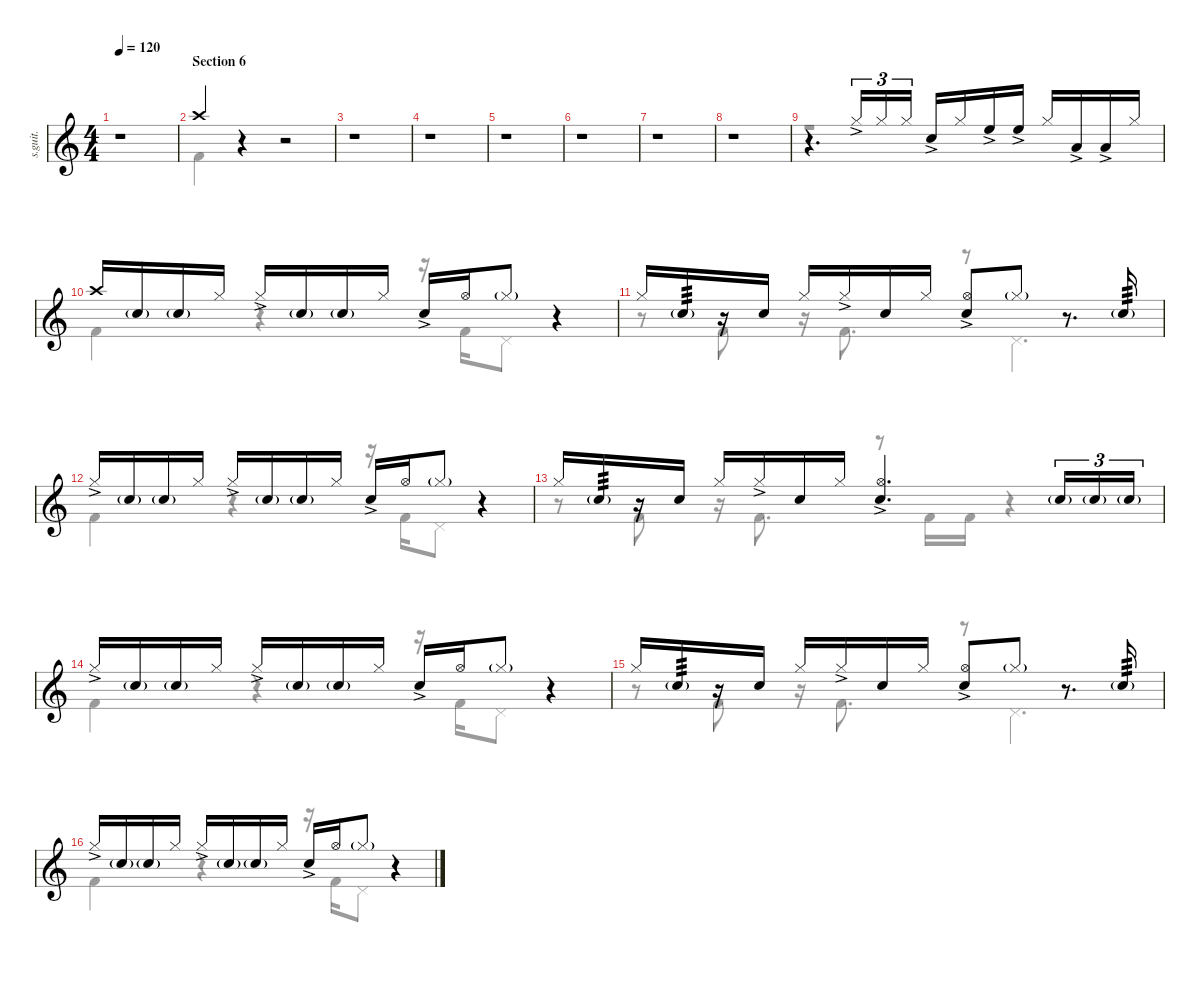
\defaultSystemsLayout 4
\hideDynamics
\bracketExtendMode nobrackets
\track ("Matt Halpern" "s.guit.") {instrument percussion}
\staff {score}
\articulation defaults
\voice
\ts (4 4)
\tempo 120
\clef g2
\ks c
r.1{dy mf} |
\section ("" "Section 6")
"Crash high (hit)".4{lyrics (0 "") lyrics (1 "") lyrics (2 "") lyrics (3 "") lyrics (4 "")} r.4 r.2 |
r.1 |
r.1 |
r.1 |
r.1 |
r.1 |
r.1 |
r.4{d} "Hi-Hat (closed)"{ac}.16{tu (3 2) lyrics (0 "") lyrics (1 "") lyrics (2 "") lyrics (3 "") lyrics (4 "")} "Hi-Hat (closed)".16{tu (3 2) lyrics (0 "") lyrics (1 "") lyrics (2 "") lyrics (3 "") lyrics (4 "")} "Hi-Hat (closed)".16{tu (3 2) lyrics (0 "") lyrics (1 "") lyrics (2 "") lyrics (3 "") lyrics (4 "")} "Snare (hit) 2"{ac}.16{lyrics (0 "") lyrics (1 "") lyrics (2 "") lyrics (3 "") lyrics (4 "")} "Hi-Hat (closed)".16{lyrics (0 "") lyrics (1 "") lyrics (2 "") lyrics (3 "") lyrics (4 "")} "High Floor Tom (hit)"{ac}.16{lyrics (0 "") lyrics (1 "") lyrics (2 "") lyrics (3 "") lyrics (4 "")} "High Floor Tom (hit)"{ac}.16{lyrics (0 "") lyrics (1 "") lyrics (2 "") lyrics (3 "") lyrics (4 "")} "Hi-Hat (closed)".16{lyrics (0 "") lyrics (1 "") lyrics (2 "") lyrics (3 "") lyrics (4 "")} "Low Tom (hit)"{ac}.16{lyrics (0 "") lyrics (1 "") lyrics (2 "") lyrics (3 "") lyrics (4 "")} "Low Tom (hit)"{ac}.16{lyrics (0 "") lyrics (1 "") lyrics (2 "") lyrics (3 "") lyrics (4 "")} "Hi-Hat (closed)".16{lyrics (0 "") lyrics (1 "") lyrics (2 "") lyrics (3 "") lyrics (4 "")} |
"Crash high (hit)".16{lyrics (0 "") lyrics (1 "") lyrics (2 "") lyrics (3 "") lyrics (4 "")} "Snare (hit) 2"{g}.16{lyrics (0 "") lyrics (1 "") lyrics (2 "") lyrics (3 "") lyrics (4 "")} "Snare (hit) 2"{g}.16{lyrics (0 "") lyrics (1 "") lyrics (2 "") lyrics (3 "") lyrics (4 "")} "Hi-Hat (closed)".16{lyrics (0 "") lyrics (1 "") lyrics (2 "") lyrics (3 "") lyrics (4 "")} "Hi-Hat (closed)"{ac}.16{lyrics (0 "") lyrics (1 "") lyrics (2 "") lyrics (3 "") lyrics (4 "")} "Snare (hit) 2"{g}.16{lyrics (0 "") lyrics (1 "") lyrics (2 "") lyrics (3 "") lyrics (4 "")} "Snare (hit) 2"{g}.16{lyrics (0 "") lyrics (1 "") lyrics (2 "") lyrics (3 "") lyrics (4 "")} "Hi-Hat (closed)".16{lyrics (0 "") lyrics (1 "") lyrics (2 "") lyrics (3 "") lyrics (4 "")} "Snare (hit) 2"{ac}.16{lyrics (0 "") lyrics (1 "") lyrics (2 "") lyrics (3 "") lyrics (4 "")} "Hi-Hat (open)".16{lyrics (0 "") lyrics (1 "") lyrics (2 "") lyrics (3 "") lyrics (4 "")} "Hi-Hat (closed)"{g}.8{lyrics (0 "") lyrics (1 "") lyrics (2 "") lyrics (3 "") lyrics (4 "")} r.4 |
"Hi-Hat (closed)".16{lyrics (0 "") lyrics (1 "") lyrics (2 "") lyrics (3 "") lyrics (4 "")} "Snare (hit) 2"{g}.16{lyrics (0 "") lyrics (1 "") lyrics (2 "") lyrics (3 "") lyrics (4 "") tp 3} r.16 "Snare (hit) 2".16{lyrics (0 "") lyrics (1 "") lyrics (2 "") lyrics (3 "") lyrics (4 "")} "Hi-Hat (closed)".16{lyrics (0 "") lyrics (1 "") lyrics (2 "") lyrics (3 "") lyrics (4 "")} "Hi-Hat (closed)"{ac}.16{lyrics (0 "") lyrics (1 "") lyrics (2 "") lyrics (3 "") lyrics (4 "")} "Snare (hit) 2".16{lyrics (0 "") lyrics (1 "") lyrics (2 "") lyrics (3 "") lyrics (4 "")} "Hi-Hat (closed)".16{lyrics (0 "") lyrics (1 "") lyrics (2 "") lyrics (3 "") lyrics (4 "")} ("Hi-Hat (open)" "Snare (hit) 2"{ac}).8{lyrics (0 "") lyrics (1 "") lyrics (2 "") lyrics (3 "") lyrics (4 "")} "Hi-Hat (closed)"{g}.8{lyrics (0 "") lyrics (1 "") lyrics (2 "") lyrics (3 "") lyrics (4 "")} r.8{d} "Snare (hit) 2"{g}.16{lyrics (0 "") lyrics (1 "") lyrics (2 "") lyrics (3 "") lyrics (4 "") tp 3} |
"Hi-Hat (closed)"{ac}.16{lyrics (0 "") lyrics (1 "") lyrics (2 "") lyrics (3 "") lyrics (4 "")} "Snare (hit) 2"{g}.16{lyrics (0 "") lyrics (1 "") lyrics (2 "") lyrics (3 "") lyrics (4 "")} "Snare (hit) 2"{g}.16{lyrics (0 "") lyrics (1 "") lyrics (2 "") lyrics (3 "") lyrics (4 "")} "Hi-Hat (closed)".16{lyrics (0 "") lyrics (1 "") lyrics (2 "") lyrics (3 "") lyrics (4 "")} "Hi-Hat (closed)"{ac}.16{lyrics (0 "") lyrics (1 "") lyrics (2 "") lyrics (3 "") lyrics (4 "")} "Snare (hit) 2"{g}.16{lyrics (0 "") lyrics (1 "") lyrics (2 "") lyrics (3 "") lyrics (4 "")} "Snare (hit) 2"{g}.16{lyrics (0 "") lyrics (1 "") lyrics (2 "") lyrics (3 "") lyrics (4 "")} "Hi-Hat (closed)".16{lyrics (0 "") lyrics (1 "") lyrics (2 "") lyrics (3 "") lyrics (4 "")} "Snare (hit) 2"{ac}.16{lyrics (0 "") lyrics (1 "") lyrics (2 "") lyrics (3 "") lyrics (4 "")} "Hi-Hat (open)".16{lyrics (0 "") lyrics (1 "") lyrics (2 "") lyrics (3 "") lyrics (4 "")} "Hi-Hat (closed)"{g}.8{lyrics (0 "") lyrics (1 "") lyrics (2 "") lyrics (3 "") lyrics (4 "")} r.4 |
"Hi-Hat (closed)".16{lyrics (0 "") lyrics (1 "") lyrics (2 "") lyrics (3 "") lyrics (4 "")} "Snare (hit) 2"{g}.16{lyrics (0 "") lyrics (1 "") lyrics (2 "") lyrics (3 "") lyrics (4 "") tp 3} r.16 "Snare (hit) 2".16{lyrics (0 "") lyrics (1 "") lyrics (2 "") lyrics (3 "") lyrics (4 "")} "Hi-Hat (closed)".16{lyrics (0 "") lyrics (1 "") lyrics (2 "") lyrics (3 "") lyrics (4 "")} "Hi-Hat (closed)"{ac}.16{lyrics (0 "") lyrics (1 "") lyrics (2 "") lyrics (3 "") lyrics (4 "")} "Snare (hit) 2".16{lyrics (0 "") lyrics (1 "") lyrics (2 "") lyrics (3 "") lyrics (4 "")} "Hi-Hat (closed)".16{lyrics (0 "") lyrics (1 "") lyrics (2 "") lyrics (3 "") lyrics (4 "")} ("Hi-Hat (open)" "Snare (hit) 2"{ac}).4{d lyrics (0 "") lyrics (1 "") lyrics (2 "") lyrics (3 "") lyrics (4 "")} "Snare (hit) 2"{g}.16{tu (3 2) lyrics (0 "") lyrics (1 "") lyrics (2 "") lyrics (3 "") lyrics (4 "")} "Snare (hit) 2"{g}.16{tu (3 2) lyrics (0 "") lyrics (1 "") lyrics (2 "") lyrics (3 "") lyrics (4 "")} "Snare (hit) 2"{g}.16{tu (3 2) lyrics (0 "") lyrics (1 "") lyrics (2 "") lyrics (3 "") lyrics (4 "")} |
"Hi-Hat (closed)"{ac}.16{lyrics (0 "") lyrics (1 "") lyrics (2 "") lyrics (3 "") lyrics (4 "")} "Snare (hit) 2"{g}.16{lyrics (0 "") lyrics (1 "") lyrics (2 "") lyrics (3 "") lyrics (4 "")} "Snare (hit) 2"{g}.16{lyrics (0 "") lyrics (1 "") lyrics (2 "") lyrics (3 "") lyrics (4 "")} "Hi-Hat (closed)".16{lyrics (0 "") lyrics (1 "") lyrics (2 "") lyrics (3 "") lyrics (4 "")} "Hi-Hat (closed)"{ac}.16{lyrics (0 "") lyrics (1 "") lyrics (2 "") lyrics (3 "") lyrics (4 "")} "Snare (hit) 2"{g}.16{lyrics (0 "") lyrics (1 "") lyrics (2 "") lyrics (3 "") lyrics (4 "")} "Snare (hit) 2"{g}.16{lyrics (0 "") lyrics (1 "") lyrics (2 "") lyrics (3 "") lyrics (4 "")} "Hi-Hat (closed)".16{lyrics (0 "") lyrics (1 "") lyrics (2 "") lyrics (3 "") lyrics (4 "")} "Snare (hit) 2"{ac}.16{lyrics (0 "") lyrics (1 "") lyrics (2 "") lyrics (3 "") lyrics (4 "")} "Hi-Hat (open)".16{lyrics (0 "") lyrics (1 "") lyrics (2 "") lyrics (3 "") lyrics (4 "")} "Hi-Hat (closed)"{g}.8{lyrics (0 "") lyrics (1 "") lyrics (2 "") lyrics (3 "") lyrics (4 "")} r.4 |
"Hi-Hat (closed)".16{lyrics (0 "") lyrics (1 "") lyrics (2 "") lyrics (3 "") lyrics (4 "")} "Snare (hit) 2"{g}.16{lyrics (0 "") lyrics (1 "") lyrics (2 "") lyrics (3 "") lyrics (4 "") tp 3} r.16 "Snare (hit) 2".16{lyrics (0 "") lyrics (1 "") lyrics (2 "") lyrics (3 "") lyrics (4 "")} "Hi-Hat (closed)".16{lyrics (0 "") lyrics (1 "") lyrics (2 "") lyrics (3 "") lyrics (4 "")} "Hi-Hat (closed)"{ac}.16{lyrics (0 "") lyrics (1 "") lyrics (2 "") lyrics (3 "") lyrics (4 "")} "Snare (hit) 2".16{lyrics (0 "") lyrics (1 "") lyrics (2 "") lyrics (3 "") lyrics (4 "")} "Hi-Hat (closed)".16{lyrics (0 "") lyrics (1 "") lyrics (2 "") lyrics (3 "") lyrics (4 "")} ("Hi-Hat (open)" "Snare (hit) 2"{ac}).8{lyrics (0 "") lyrics (1 "") lyrics (2 "") lyrics (3 "") lyrics (4 "")} "Hi-Hat (closed)"{g}.8{lyrics (0 "") lyrics (1 "") lyrics (2 "") lyrics (3 "") lyrics (4 "")} r.8{d} "Snare (hit) 2"{g}.16{lyrics (0 "") lyrics (1 "") lyrics (2 "") lyrics (3 "") lyrics (4 "") tp 3} |
"Hi-Hat (closed)"{ac}.16{lyrics (0 "") lyrics (1 "") lyrics (2 "") lyrics (3 "") lyrics (4 "")} "Snare (hit) 2"{g}.16{lyrics (0 "") lyrics (1 "") lyrics (2 "") lyrics (3 "") lyrics (4 "")} "Snare (hit) 2"{g}.16{lyrics (0 "") lyrics (1 "") lyrics (2 "") lyrics (3 "") lyrics (4 "")} "Hi-Hat (closed)".16{lyrics (0 "") lyrics (1 "") lyrics (2 "") lyrics (3 "") lyrics (4 "")} "Hi-Hat (closed)"{ac}.16{lyrics (0 "") lyrics (1 "") lyrics (2 "") lyrics (3 "") lyrics (4 "")} "Snare (hit) 2"{g}.16{lyrics (0 "") lyrics (1 "") lyrics (2 "") lyrics (3 "") lyrics (4 "")} "Snare (hit) 2"{g}.16{lyrics (0 "") lyrics (1 "") lyrics (2 "") lyrics (3 "") lyrics (4 "")} "Hi-Hat (closed)".16{lyrics (0 "") lyrics (1 "") lyrics (2 "") lyrics (3 "") lyrics (4 "")} "Snare (hit) 2"{ac}.16{lyrics (0 "") lyrics (1 "") lyrics (2 "") lyrics (3 "") lyrics (4 "")} "Hi-Hat (open)".16{lyrics (0 "") lyrics (1 "") lyrics (2 "") lyrics (3 "") lyrics (4 "")} "Hi-Hat (closed)"{g}.8{lyrics (0 "") lyrics (1 "") lyrics (2 "") lyrics (3 "") lyrics (4 "")} r.4
\voice
\clef g2
\ottava regular
\simile none
\ks c
r.1{dy mf} |
"Kick (hit) 2".4{lyrics (0 "") lyrics (1 "") lyrics (2 "") lyrics (3 "") lyrics (4 "")} r.4 r.2 |
r.1 |
r.1 |
r.1 |
r.1 |
r.1 |
r.1 |
r.1 |
"Kick (hit) 2".4{lyrics (0 "") lyrics (1 "") lyrics (2 "") lyrics (3 "") lyrics (4 "")} r.4 r.16 "Kick (hit) 2".16{lyrics (0 "") lyrics (1 "") lyrics (2 "") lyrics (3 "") lyrics (4 "")} "Pedal Hi-Hat (hit)".8{lyrics (0 "") lyrics (1 "") lyrics (2 "") lyrics (3 "") lyrics (4 "")} r.4 |
r.8 "Kick (hit) 2".8{lyrics (0 "") lyrics (1 "") lyrics (2 "") lyrics (3 "") lyrics (4 "")} r.16 "Kick (hit) 2".8{d lyrics (0 "") lyrics (1 "") lyrics (2 "") lyrics (3 "") lyrics (4 "")} r.8 "Pedal Hi-Hat (hit)".4{d lyrics (0 "") lyrics (1 "") lyrics (2 "") lyrics (3 "") lyrics (4 "")} |
"Kick (hit) 2".4{lyrics (0 "") lyrics (1 "") lyrics (2 "") lyrics (3 "") lyrics (4 "")} r.4 r.16 "Kick (hit) 2".16{lyrics (0 "") lyrics (1 "") lyrics (2 "") lyrics (3 "") lyrics (4 "")} "Pedal Hi-Hat (hit)".8{lyrics (0 "") lyrics (1 "") lyrics (2 "") lyrics (3 "") lyrics (4 "")} r.4 |
r.8 "Kick (hit) 2".8{lyrics (0 "") lyrics (1 "") lyrics (2 "") lyrics (3 "") lyrics (4 "")} r.16 "Kick (hit) 2".8{d lyrics (0 "") lyrics (1 "") lyrics (2 "") lyrics (3 "") lyrics (4 "")} r.8 "Kick (hit) 2".16{lyrics (0 "") lyrics (1 "") lyrics (2 "") lyrics (3 "") lyrics (4 "")} "Kick (hit) 2".16{lyrics (0 "") lyrics (1 "") lyrics (2 "") lyrics (3 "") lyrics (4 "")} r.4 |
"Kick (hit) 2".4{lyrics (0 "") lyrics (1 "") lyrics (2 "") lyrics (3 "") lyrics (4 "")} r.4 r.16 "Kick (hit) 2".16{lyrics (0 "") lyrics (1 "") lyrics (2 "") lyrics (3 "") lyrics (4 "")} "Pedal Hi-Hat (hit)".8{lyrics (0 "") lyrics (1 "") lyrics (2 "") lyrics (3 "") lyrics (4 "")} r.4 |
r.8 "Kick (hit) 2".8{lyrics (0 "") lyrics (1 "") lyrics (2 "") lyrics (3 "") lyrics (4 "")} r.16 "Kick (hit) 2".8{d lyrics (0 "") lyrics (1 "") lyrics (2 "") lyrics (3 "") lyrics (4 "")} r.8 "Pedal Hi-Hat (hit)".4{d lyrics (0 "") lyrics (1 "") lyrics (2 "") lyrics (3 "") lyrics (4 "")} |
"Kick (hit) 2".4{lyrics (0 "") lyrics (1 "") lyrics (2 "") lyrics (3 "") lyrics (4 "")} r.4 r.16 "Kick (hit) 2".16{lyrics (0 "") lyrics (1 "") lyrics (2 "") lyrics (3 "") lyrics (4 "")} "Pedal Hi-Hat (hit)".8{lyrics (0 "") lyrics (1 "") lyrics (2 "") lyrics (3 "") lyrics (4 "")} r.4
